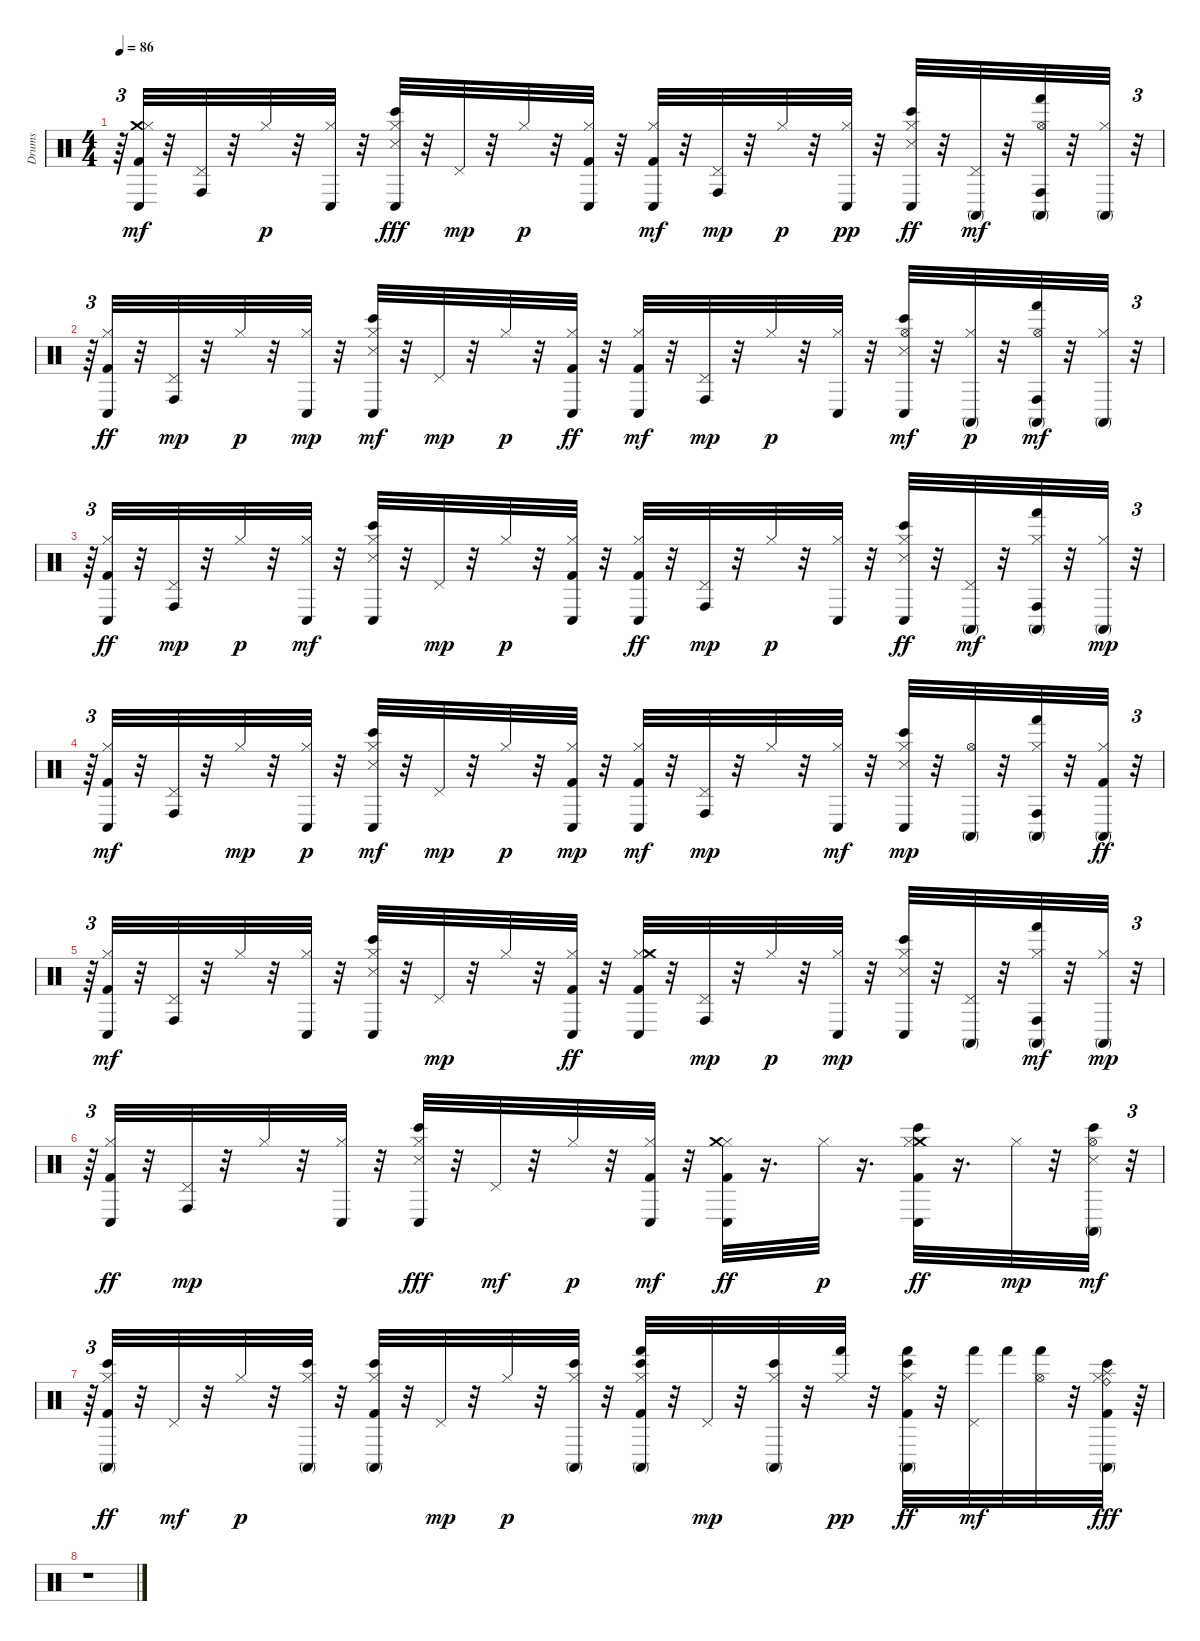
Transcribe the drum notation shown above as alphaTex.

\track ("Drums" "Drums") {instrument percussion}
\staff {score}
\articulation defaults
\ts (4 4)
\tempo 86
\clef neutral
\ks c
r.64{tu (3 2) dy mp} ("Kick (hit) 2" "Crash medium (hit)" "Conga low (hit)" "Hi-Hat (closed)").32{dy mf} r.32 ("Conga high (hit)" "Pedal Hi-Hat (hit)").32 r.32 "Hi-Hat (closed)".32{dy p} r.32 ("Conga low (hit)" "Hi-Hat (closed)").32 r.32 ("Conga low (hit)" "Bongo High (hit)" "Snare (side stick) 3" "Hi-Hat (closed)").32{dy fff} r.32 "Pedal Hi-Hat (hit)".32{dy mp} r.32 "Hi-Hat (closed)".32{dy p} r.32 ("Conga low (hit)" "Kick (hit) 2" "Hi-Hat (closed)").32 r.32 ("Conga low (hit)" "Hi-Hat (closed)" "Kick (hit) 2").32{dy mf} r.32 ("Pedal Hi-Hat (hit)" "Conga high (hit)").32{dy mp} r.32 "Hi-Hat (closed)".32{dy p} r.32 ("Conga low (hit)" "Hi-Hat (closed)").32{dy pp} r.32 ("Conga low (hit)" "Bongo High (hit)" "Snare (side stick) 3" "Hi-Hat (closed)").32{dy ff} r.32 ("Conga high (mute)" "Pedal Hi-Hat (hit)").32{dy mf} r.32 ("Hi-Hat (open)" "Conga high (mute)" "Conga high (hit)" "Hand (hit)").32 r.32 ("Hi-Hat (closed)" "Conga high (mute)").32 r.32{tu (3 2)} |
r.64{tu (3 2)} ("Hi-Hat (closed)" "Kick (hit) 2" "Conga low (hit)").32{dy ff} r.32 ("Pedal Hi-Hat (hit)" "Conga high (hit)").32{dy mp} r.32 "Hi-Hat (closed)".32{dy p} r.32 ("Conga low (hit)" "Hi-Hat (closed)").32{dy mp} r.32 ("Snare (side stick) 3" "Hi-Hat (closed)" "Conga low (hit)" "Bongo High (hit)").32{dy mf} r.32 "Pedal Hi-Hat (hit)".32{dy mp} r.32 "Hi-Hat (closed)".32{dy p} r.32 ("Conga low (hit)" "Hi-Hat (closed)" "Kick (hit) 2").32{dy ff} r.32 ("Conga low (hit)" "Kick (hit) 2" "Hi-Hat (closed)").32{dy mf} r.32 ("Conga high (hit)" "Pedal Hi-Hat (hit)").32{dy mp} r.32 "Hi-Hat (closed)".32{dy p} r.32 ("Conga low (hit)" "Hi-Hat (closed)").32 r.32 ("Bongo High (hit)" "Snare (side stick) 3" "Conga low (hit)" "Hi-Hat (open)").32{dy mf} r.32 ("Conga high (mute)" "Hi-Hat (closed)").32{dy p} r.32 ("Hi-Hat (open)" "Conga high (hit)" "Conga high (mute)" "Hand (hit)").32{dy mf} r.32 ("Hi-Hat (closed)" "Conga high (mute)").32 r.32{tu (3 2)} |
r.64{tu (3 2)} ("Kick (hit) 2" "Conga low (hit)" "Hi-Hat (closed)").32{dy ff} r.32 ("Pedal Hi-Hat (hit)" "Conga high (hit)").32{dy mp} r.32 "Hi-Hat (closed)".32{dy p} r.32 ("Hi-Hat (closed)" "Conga low (hit)").32{dy mf} r.32 ("Snare (side stick) 3" "Hi-Hat (closed)" "Bongo High (hit)" "Conga low (hit)").32 r.32 "Pedal Hi-Hat (hit)".32{dy mp} r.32 "Hi-Hat (closed)".32{dy p} r.32 ("Conga low (hit)" "Kick (hit) 2" "Hi-Hat (closed)").32 r.32 ("Hi-Hat (closed)" "Conga low (hit)" "Kick (hit) 2").32{dy ff} r.32 ("Pedal Hi-Hat (hit)" "Conga high (hit)").32{dy mp} r.32 "Hi-Hat (closed)".32{dy p} r.32 ("Conga low (hit)" "Hi-Hat (closed)").32 r.32 ("Conga low (hit)" "Bongo High (hit)" "Snare (side stick) 3" "Hi-Hat (closed)").32{dy ff} r.32 ("Conga high (mute)" "Pedal Hi-Hat (hit)").32{dy mf} r.32 ("Conga high (hit)" "Conga high (mute)" "Hi-Hat (closed)" "Hand (hit)").32 r.32 ("Conga high (mute)" "Hi-Hat (closed)").32{dy mp} r.32{tu (3 2)} |
r.64{tu (3 2)} ("Kick (hit) 2" "Hi-Hat (closed)" "Conga low (hit)").32{dy mf} r.32 ("Pedal Hi-Hat (hit)" "Conga high (hit)").32 r.32 "Hi-Hat (closed)".32{dy mp} r.32 ("Conga low (hit)" "Hi-Hat (closed)").32{dy p} r.32 ("Conga low (hit)" "Hi-Hat (closed)" "Snare (side stick) 3" "Bongo High (hit)").32{dy mf} r.32 "Pedal Hi-Hat (hit)".32{dy mp} r.32 "Hi-Hat (closed)".32{dy p} r.32 ("Kick (hit) 2" "Conga low (hit)" "Hi-Hat (closed)").32{dy mp} r.32 ("Hi-Hat (closed)" "Conga low (hit)" "Kick (hit) 2").32{dy mf} r.32 ("Pedal Hi-Hat (hit)" "Conga high (hit)").32{dy mp} r.32 "Hi-Hat (closed)".32 r.32 ("Hi-Hat (closed)" "Conga low (hit)").32{dy mf} r.32 ("Conga low (hit)" "Snare (side stick) 3" "Bongo High (hit)" "Hi-Hat (closed)").32{dy mp} r.32 ("Conga high (mute)" "Hi-Hat (open)").32 r.32 ("Conga high (hit)" "Conga high (mute)" "Hi-Hat (closed)" "Hand (hit)").32 r.32 ("Conga high (mute)" "Hi-Hat (closed)" "Kick (hit) 2").32{dy ff} r.32{tu (3 2)} |
r.64{tu (3 2)} ("Hi-Hat (closed)" "Kick (hit) 2" "Conga low (hit)").32{dy mf} r.32 ("Pedal Hi-Hat (hit)" "Conga high (hit)").32 r.32 "Hi-Hat (closed)".32 r.32 ("Hi-Hat (closed)" "Conga low (hit)").32 r.32 ("Hi-Hat (closed)" "Conga low (hit)" "Bongo High (hit)" "Snare (side stick) 3").32 r.32 "Pedal Hi-Hat (hit)".32{dy mp} r.32 "Hi-Hat (closed)".32 r.32 ("Hi-Hat (closed)" "Conga low (hit)" "Kick (hit) 2").32{dy ff} r.32 ("Hi-Hat (closed)" "Conga low (hit)" "Kick (hit) 2" "Crash medium (hit)").32 r.32 ("Pedal Hi-Hat (hit)" "Conga high (hit)").32{dy mp} r.32 "Hi-Hat (closed)".32{dy p} r.32 ("Conga low (hit)" "Hi-Hat (closed)").32{dy mp} r.32 ("Conga low (hit)" "Snare (side stick) 3" "Bongo High (hit)" "Hi-Hat (closed)").32 r.32 ("Conga high (mute)" "Pedal Hi-Hat (hit)").32 r.32 ("Conga high (hit)" "Hi-Hat (closed)" "Conga high (mute)" "Hand (hit)").32{dy mf} r.32 ("Conga high (mute)" "Hi-Hat (closed)").32{dy mp} r.32{tu (3 2)} |
r.64{tu (3 2)} ("Conga low (hit)" "Kick (hit) 2" "Hi-Hat (closed)").32{dy ff} r.32 ("Pedal Hi-Hat (hit)" "Conga high (hit)").32{dy mp} r.32 "Hi-Hat (closed)".32 r.32 ("Conga low (hit)" "Hi-Hat (closed)").32 r.32 ("Bongo High (hit)" "Conga low (hit)" "Snare (side stick) 3" "Hi-Hat (closed)").32{dy fff} r.32 "Pedal Hi-Hat (hit)".32{dy mf} r.32 "Hi-Hat (closed)".32{dy p} r.32 ("Hi-Hat (closed)" "Conga low (hit)" "Kick (hit) 2").32{dy mf} r.32 ("Conga low (hit)" "Hi-Hat (closed)" "Crash medium (hit)" "Kick (hit) 2").32{dy ff} r.16{d} "Hi-Hat (closed)".32{dy p} r.16{d} ("Bongo High (hit)" "Conga low (hit)" "Crash medium (hit)" "Hi-Hat (closed)" "Kick (hit) 2").32{dy ff} r.16{d} "Hi-Hat (closed)".32{dy mp} r.32 ("Hi-Hat (open)" "Snare (side stick) 3" "Conga high (mute)" "Bongo High (hit)").32{dy mf} r.32{tu (3 2)} |
r.64{tu (3 2)} ("Bongo High (hit)" "Conga high (mute)" "Kick (hit) 2" "Hi-Hat (closed)").32{dy ff} r.32 "Pedal Hi-Hat (hit)".32{dy mf} r.32 "Hi-Hat (closed)".32{dy p} r.32 ("Conga high (mute)" "Bongo High (hit)" "Hi-Hat (closed)").32 r.32 ("Kick (hit) 2" "Bongo High (hit)" "Conga high (mute)" "Hi-Hat (closed)").32 r.32 "Pedal Hi-Hat (hit)".32{dy mp} r.32 "Hi-Hat (closed)".32{dy p} r.32 ("Conga high (mute)" "Bongo High (hit)" "Hi-Hat (closed)").32 r.32 ("Kick (hit) 2" "Hi-Hat (closed)" "Bongo High (hit)" "Conga high (mute)" "Hand (hit)").32 r.32 "Pedal Hi-Hat (hit)".32{dy mp} r.32 ("Conga high (mute)" "Hi-Hat (closed)" "Bongo High (hit)").32 r.32 ("Hand (hit)" "Hi-Hat (closed)").32{dy pp} r.32 ("Bongo High (hit)" "Conga high (mute)" "Kick (hit) 2" "Hand (hit)" "Hi-Hat (closed)").32{dy ff} r.32 ("Hand (hit)" "Pedal Hi-Hat (hit)").32{dy mf} "Hand (hit)".32 ("Hi-Hat (open)" "Hand (hit)").32 r.32 ("Bongo High (hit)" "Hi-Hat (closed)" "Conga high (mute)" "Ride (bell)" "Kick (hit) 2" "Splash (hit)").32{dy fff} r.64 |
r.1
